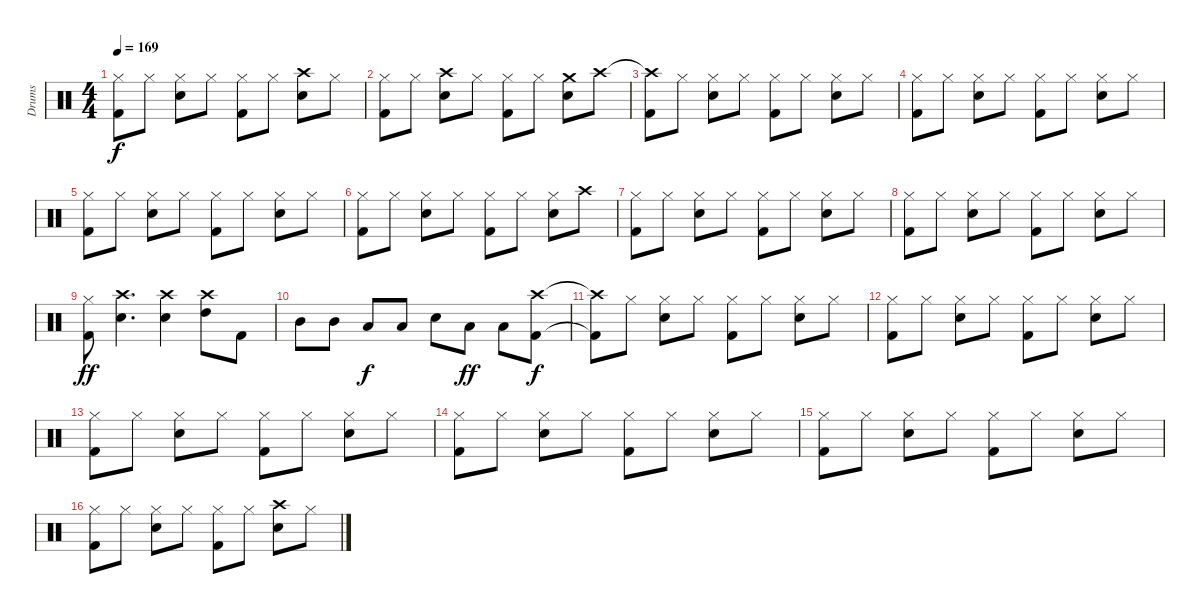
\track ("Drums" "Drums") {instrument percussion}
\staff {score}
\articulation defaults
\ts (4 4)
\tempo 169
\clef neutral
\ks c
("Hi-Hat (closed)" "Kick (hit) 2").8{dy f} "Hi-Hat (closed)".8 ("Hi-Hat (closed)" "Snare (hit) 2").8 "Hi-Hat (closed)".8 ("Hi-Hat (closed)" "Kick (hit) 2").8 "Hi-Hat (closed)".8 ("Crash high (hit)" "Snare (hit) 2").8 "Hi-Hat (closed)".8 |
("Hi-Hat (closed)" "Kick (hit) 2").8 "Hi-Hat (closed)".8 ("Crash high (hit)" "Snare (hit) 2").8 "Hi-Hat (closed)".8 ("Hi-Hat (closed)" "Kick (hit) 2").8 "Hi-Hat (closed)".8 ("Crash medium (hit)" "Snare (hit) 2").8 "Crash high (hit)".8 |
("Crash high (hit)"{t} "Kick (hit) 2").8 "Hi-Hat (closed)".8 ("Hi-Hat (closed)" "Snare (hit) 2").8 "Hi-Hat (closed)".8 ("Hi-Hat (closed)" "Kick (hit) 2").8 "Hi-Hat (closed)".8 ("Hi-Hat (closed)" "Snare (hit) 2").8 "Hi-Hat (closed)".8 |
("Hi-Hat (closed)" "Kick (hit) 2").8 "Hi-Hat (closed)".8 ("Hi-Hat (closed)" "Snare (hit) 2").8 "Hi-Hat (closed)".8 ("Hi-Hat (closed)" "Kick (hit) 2").8 "Hi-Hat (closed)".8 ("Hi-Hat (closed)" "Snare (hit) 2").8 "Hi-Hat (closed)".8 |
("Hi-Hat (closed)" "Kick (hit) 2").8 "Hi-Hat (closed)".8 ("Hi-Hat (closed)" "Snare (hit) 2").8 "Hi-Hat (closed)".8 ("Hi-Hat (closed)" "Kick (hit) 2").8 "Hi-Hat (closed)".8 ("Hi-Hat (closed)" "Snare (hit) 2").8 "Hi-Hat (closed)".8 |
("Hi-Hat (closed)" "Kick (hit) 2").8 "Hi-Hat (closed)".8 ("Hi-Hat (closed)" "Snare (hit) 2").8 "Hi-Hat (closed)".8 ("Hi-Hat (closed)" "Kick (hit) 2").8 "Hi-Hat (closed)".8 ("Hi-Hat (closed)" "Snare (hit) 2").8 "Crash high (hit)".8 |
("Hi-Hat (closed)" "Kick (hit) 2").8 "Hi-Hat (closed)".8 ("Hi-Hat (closed)" "Snare (hit) 2").8 "Hi-Hat (closed)".8 ("Hi-Hat (closed)" "Kick (hit) 2").8 "Hi-Hat (closed)".8 ("Hi-Hat (closed)" "Snare (hit) 2").8 "Hi-Hat (closed)".8 |
("Hi-Hat (closed)" "Kick (hit) 2").8 "Hi-Hat (closed)".8 ("Hi-Hat (closed)" "Snare (hit) 2").8 "Hi-Hat (closed)".8 ("Hi-Hat (closed)" "Kick (hit) 2").8 "Hi-Hat (closed)".8 ("Hi-Hat (closed)" "Snare (hit) 2").8 "Hi-Hat (closed)".8 |
("Hi-Hat (closed)" "Kick (hit) 2").8{dy ff} ("Crash high (hit)" "Snare (hit) 2").4{d} ("Crash high (hit)" "Snare (hit) 2").4 ("Crash high (hit)" "High Tom (hit)").8 "Kick (hit) 2".8 |
"Mid Tom (hit)".8 "Mid Tom (hit)".8 "Low Tom (hit)".8{dy f} "Low Tom (hit)".8 "Electric Snare (hit)".8 "Low Tom (hit)".8{dy ff} "Low Tom (hit)".8 ("Crash high (hit)" "Kick (hit) 2").8{dy f} |
("Crash high (hit)"{t} "Kick (hit) 2"{t}).8 "Hi-Hat (closed)".8 ("Hi-Hat (closed)" "Snare (hit) 2").8 "Hi-Hat (closed)".8 ("Hi-Hat (closed)" "Kick (hit) 2").8 "Hi-Hat (closed)".8 ("Hi-Hat (closed)" "Snare (hit) 2").8 "Hi-Hat (closed)".8 |
("Hi-Hat (closed)" "Kick (hit) 2").8 "Hi-Hat (closed)".8 ("Hi-Hat (closed)" "Snare (hit) 2").8 "Hi-Hat (closed)".8 ("Hi-Hat (closed)" "Kick (hit) 2").8 "Hi-Hat (closed)".8 ("Hi-Hat (closed)" "Snare (hit) 2").8 "Hi-Hat (closed)".8 |
("Hi-Hat (closed)" "Kick (hit) 2").8 "Hi-Hat (closed)".8 ("Hi-Hat (closed)" "Snare (hit) 2").8 "Hi-Hat (closed)".8 ("Hi-Hat (closed)" "Kick (hit) 2").8 "Hi-Hat (closed)".8 ("Hi-Hat (closed)" "Snare (hit) 2").8 "Hi-Hat (closed)".8 |
("Hi-Hat (closed)" "Kick (hit) 2").8 "Hi-Hat (closed)".8 ("Hi-Hat (closed)" "Snare (hit) 2").8 "Hi-Hat (closed)".8 ("Hi-Hat (closed)" "Kick (hit) 2").8 "Hi-Hat (closed)".8 ("Hi-Hat (closed)" "Snare (hit) 2").8 "Hi-Hat (closed)".8 |
("Hi-Hat (closed)" "Kick (hit) 2").8 "Hi-Hat (closed)".8 ("Hi-Hat (closed)" "Snare (hit) 2").8 "Hi-Hat (closed)".8 ("Hi-Hat (closed)" "Kick (hit) 2").8 "Hi-Hat (closed)".8 ("Hi-Hat (closed)" "Snare (hit) 2").8 "Hi-Hat (closed)".8 |
("Hi-Hat (closed)" "Kick (hit) 2").8 "Hi-Hat (closed)".8 ("Hi-Hat (closed)" "Snare (hit) 2").8 "Hi-Hat (closed)".8 ("Hi-Hat (closed)" "Kick (hit) 2").8 "Hi-Hat (closed)".8 ("Crash high (hit)" "Snare (hit) 2").8 "Hi-Hat (closed)".8
